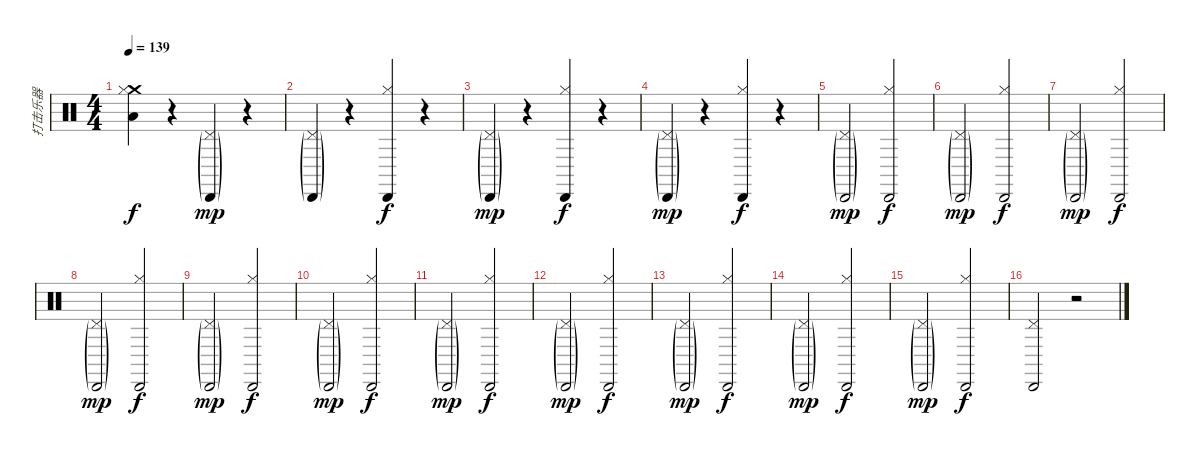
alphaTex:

\track ("打击乐器" "打击乐器") {instrument percussion}
\staff {score}
\articulation defaults
\ts (4 4)
\tempo 139
\clef neutral
\ks c
("Crash medium (hit)" "Low Floor Tom (hit)" "Hi-Hat (closed)").4{dy f} r.4 ("Pedal Hi-Hat (hit)"{g} "Cabasa (hit)"{g}).4{dy mp} r.4 |
("Pedal Hi-Hat (hit)"{g} "Cabasa (hit)"{g}).4 r.4 ("Hi-Hat (closed)" "Cabasa (hit)").4{dy f} r.4 |
("Pedal Hi-Hat (hit)"{g} "Cabasa (hit)"{g}).4{dy mp} r.4 ("Hi-Hat (closed)" "Cabasa (hit)").4{dy f} r.4 |
("Pedal Hi-Hat (hit)"{g} "Cabasa (hit)"{g}).4{dy mp} r.4 ("Hi-Hat (closed)" "Cabasa (hit)").4{dy f} r.4 |
("Pedal Hi-Hat (hit)"{g} "Cabasa (hit)"{g}).2{dy mp} ("Hi-Hat (closed)" "Cabasa (hit)").2{dy f} |
("Pedal Hi-Hat (hit)"{g} "Cabasa (hit)"{g}).2{dy mp} ("Hi-Hat (closed)" "Cabasa (hit)").2{dy f} |
("Pedal Hi-Hat (hit)"{g} "Cabasa (hit)"{g}).2{dy mp} ("Hi-Hat (closed)" "Cabasa (hit)").2{dy f} |
("Pedal Hi-Hat (hit)"{g} "Cabasa (hit)"{g}).2{dy mp} ("Hi-Hat (closed)" "Cabasa (hit)").2{dy f} |
("Pedal Hi-Hat (hit)"{g} "Cabasa (hit)"{g}).2{dy mp} ("Hi-Hat (closed)" "Cabasa (hit)").2{dy f} |
("Pedal Hi-Hat (hit)"{g} "Cabasa (hit)"{g}).2{dy mp} ("Hi-Hat (closed)" "Cabasa (hit)").2{dy f} |
("Pedal Hi-Hat (hit)"{g} "Cabasa (hit)"{g}).2{dy mp} ("Hi-Hat (closed)" "Cabasa (hit)").2{dy f} |
("Pedal Hi-Hat (hit)"{g} "Cabasa (hit)"{g}).2{dy mp} ("Hi-Hat (closed)" "Cabasa (hit)").2{dy f} |
("Pedal Hi-Hat (hit)"{g} "Cabasa (hit)"{g}).2{dy mp} ("Hi-Hat (closed)" "Cabasa (hit)").2{dy f} |
("Pedal Hi-Hat (hit)"{g} "Cabasa (hit)"{g}).2{dy mp} ("Hi-Hat (closed)" "Cabasa (hit)").2{dy f} |
("Pedal Hi-Hat (hit)"{g} "Cabasa (hit)"{g}).2{dy mp} ("Hi-Hat (closed)" "Cabasa (hit)").2{dy f} |
("Pedal Hi-Hat (hit)" "Cabasa (hit)").2 r.2
